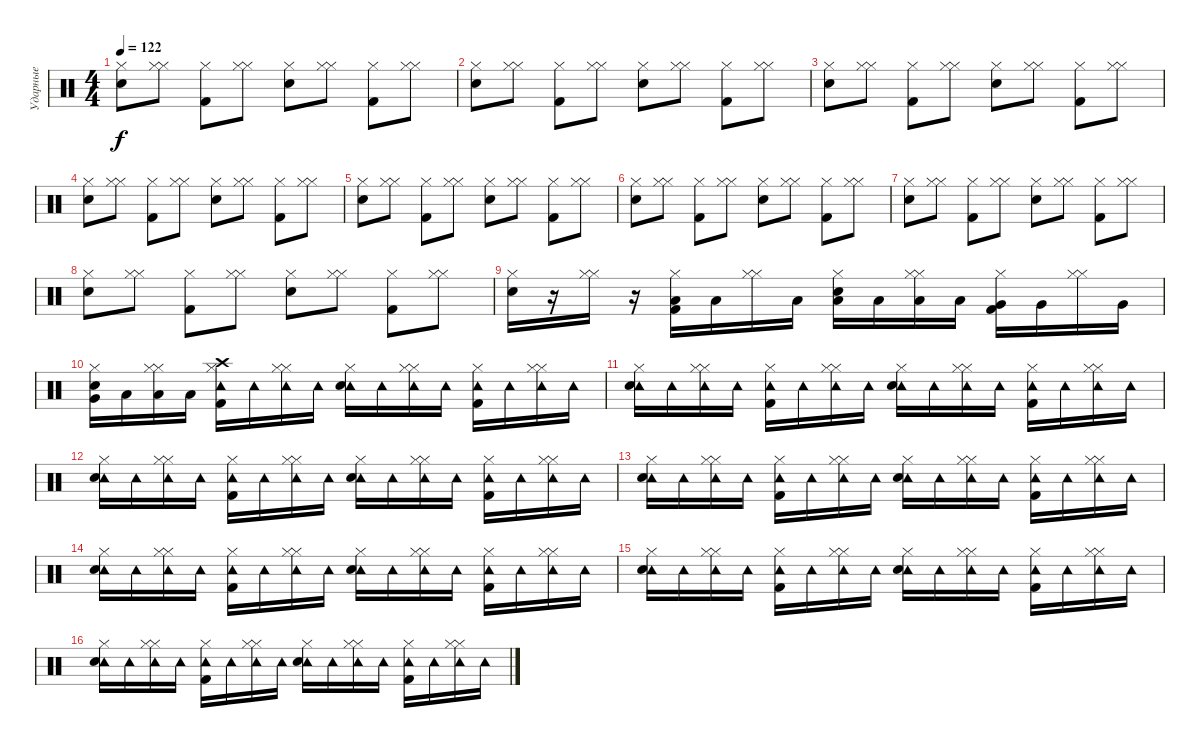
\track ("Ударные" "Ударные") {instrument percussion}
\staff {score}
\articulation defaults
\ts (4 4)
\tempo 122
\clef neutral
\ks c
("Hi-Hat (closed)" "Snare (hit) 2").8{dy f} ("Hi-Hat (closed)" "Hi-Hat (closed)").8 ("Hi-Hat (closed)" "Kick (hit) 2").8 ("Hi-Hat (closed)" "Hi-Hat (closed)").8 ("Hi-Hat (closed)" "Snare (hit) 2").8 ("Hi-Hat (closed)" "Hi-Hat (closed)").8 ("Hi-Hat (closed)" "Kick (hit) 2").8 ("Hi-Hat (closed)" "Hi-Hat (closed)").8 |
("Hi-Hat (closed)" "Snare (hit) 2").8 ("Hi-Hat (closed)" "Hi-Hat (closed)").8 ("Hi-Hat (closed)" "Kick (hit) 2").8 ("Hi-Hat (closed)" "Hi-Hat (closed)").8 ("Hi-Hat (closed)" "Snare (hit) 2").8 ("Hi-Hat (closed)" "Hi-Hat (closed)").8 ("Hi-Hat (closed)" "Kick (hit) 2").8 ("Hi-Hat (closed)" "Hi-Hat (closed)").8 |
("Hi-Hat (closed)" "Snare (hit) 2").8 ("Hi-Hat (closed)" "Hi-Hat (closed)").8 ("Hi-Hat (closed)" "Kick (hit) 2").8 ("Hi-Hat (closed)" "Hi-Hat (closed)").8 ("Hi-Hat (closed)" "Snare (hit) 2").8 ("Hi-Hat (closed)" "Hi-Hat (closed)").8 ("Hi-Hat (closed)" "Kick (hit) 2").8 ("Hi-Hat (closed)" "Hi-Hat (closed)").8 |
("Hi-Hat (closed)" "Snare (hit) 2").8 ("Hi-Hat (closed)" "Hi-Hat (closed)").8 ("Hi-Hat (closed)" "Kick (hit) 2").8 ("Hi-Hat (closed)" "Hi-Hat (closed)").8 ("Hi-Hat (closed)" "Snare (hit) 2").8 ("Hi-Hat (closed)" "Hi-Hat (closed)").8 ("Hi-Hat (closed)" "Kick (hit) 2").8 ("Hi-Hat (closed)" "Hi-Hat (closed)").8 |
("Hi-Hat (closed)" "Snare (hit) 2").8 ("Hi-Hat (closed)" "Hi-Hat (closed)").8 ("Hi-Hat (closed)" "Kick (hit) 2").8 ("Hi-Hat (closed)" "Hi-Hat (closed)").8 ("Hi-Hat (closed)" "Snare (hit) 2").8 ("Hi-Hat (closed)" "Hi-Hat (closed)").8 ("Hi-Hat (closed)" "Kick (hit) 2").8 ("Hi-Hat (closed)" "Hi-Hat (closed)").8 |
("Hi-Hat (closed)" "Snare (hit) 2").8 ("Hi-Hat (closed)" "Hi-Hat (closed)").8 ("Hi-Hat (closed)" "Kick (hit) 2").8 ("Hi-Hat (closed)" "Hi-Hat (closed)").8 ("Hi-Hat (closed)" "Snare (hit) 2").8 ("Hi-Hat (closed)" "Hi-Hat (closed)").8 ("Hi-Hat (closed)" "Kick (hit) 2").8 ("Hi-Hat (closed)" "Hi-Hat (closed)").8 |
("Hi-Hat (closed)" "Snare (hit) 2").8 ("Hi-Hat (closed)" "Hi-Hat (closed)").8 ("Hi-Hat (closed)" "Kick (hit) 2").8 ("Hi-Hat (closed)" "Hi-Hat (closed)").8 ("Hi-Hat (closed)" "Snare (hit) 2").8 ("Hi-Hat (closed)" "Hi-Hat (closed)").8 ("Hi-Hat (closed)" "Kick (hit) 2").8 ("Hi-Hat (closed)" "Hi-Hat (closed)").8 |
("Hi-Hat (closed)" "Snare (hit) 2").8 ("Hi-Hat (closed)" "Hi-Hat (closed)").8 ("Hi-Hat (closed)" "Kick (hit) 2").8 ("Hi-Hat (closed)" "Hi-Hat (closed)").8 ("Hi-Hat (closed)" "Snare (hit) 2").8 ("Hi-Hat (closed)" "Hi-Hat (closed)").8 ("Hi-Hat (closed)" "Kick (hit) 2").8 ("Hi-Hat (closed)" "Hi-Hat (closed)").8 |
("Hi-Hat (closed)" "Snare (hit) 2").16 r.16 ("Hi-Hat (closed)" "Hi-Hat (closed)").16 r.16 ("Low Tom (hit)" "Hi-Hat (closed)" "Kick (hit) 2").16 "Low Tom (hit)".16 ("Hi-Hat (closed)" "Hi-Hat (closed)").16 "Low Tom (hit)".16 ("Low Tom (hit)" "Hi-Hat (closed)" "Snare (hit) 2").16 "Low Tom (hit)".16 ("Low Tom (hit)" "Hi-Hat (closed)" "Hi-Hat (closed)").16 "Low Tom (hit)".16 ("Very Low Tom (hit)" "Hi-Hat (closed)" "Kick (hit) 2").16 "Very Low Tom (hit)".16 ("Hi-Hat (closed)" "Hi-Hat (closed)").16 "Very Low Tom (hit)".16 |
("Very Low Tom (hit)" "Hi-Hat (closed)" "Snare (hit) 2").16 "Low Floor Tom (hit)".16 ("Low Floor Tom (hit)" "Hi-Hat (closed)" "Hi-Hat (closed)").16 "Low Floor Tom (hit)".16 ("Crash high (hit)" "Tambourine (hit)" "Hi-Hat (closed)" "Kick (hit) 2").16 "Tambourine (hit)".16 ("Tambourine (hit)" "Hi-Hat (closed)" "Hi-Hat (closed)").16 "Tambourine (hit)".16 ("Tambourine (hit)" "Hi-Hat (closed)" "Snare (hit) 2").16 "Tambourine (hit)".16 ("Tambourine (hit)" "Hi-Hat (closed)" "Hi-Hat (closed)").16 "Tambourine (hit)".16 ("Tambourine (hit)" "Hi-Hat (closed)" "Kick (hit) 2").16 "Tambourine (hit)".16 ("Tambourine (hit)" "Hi-Hat (closed)" "Hi-Hat (closed)").16 "Tambourine (hit)".16 |
("Tambourine (hit)" "Hi-Hat (closed)" "Snare (hit) 2").16 "Tambourine (hit)".16 ("Tambourine (hit)" "Hi-Hat (closed)" "Hi-Hat (closed)").16 "Tambourine (hit)".16 ("Tambourine (hit)" "Hi-Hat (closed)" "Kick (hit) 2").16 "Tambourine (hit)".16 ("Tambourine (hit)" "Hi-Hat (closed)" "Hi-Hat (closed)").16 "Tambourine (hit)".16 ("Tambourine (hit)" "Hi-Hat (closed)" "Snare (hit) 2").16 "Tambourine (hit)".16 ("Tambourine (hit)" "Hi-Hat (closed)" "Hi-Hat (closed)").16 "Tambourine (hit)".16 ("Tambourine (hit)" "Hi-Hat (closed)" "Kick (hit) 2").16 "Tambourine (hit)".16 ("Tambourine (hit)" "Hi-Hat (closed)" "Hi-Hat (closed)").16 "Tambourine (hit)".16 |
("Tambourine (hit)" "Hi-Hat (closed)" "Snare (hit) 2").16 "Tambourine (hit)".16 ("Tambourine (hit)" "Hi-Hat (closed)" "Hi-Hat (closed)").16 "Tambourine (hit)".16 ("Tambourine (hit)" "Hi-Hat (closed)" "Kick (hit) 2").16 "Tambourine (hit)".16 ("Tambourine (hit)" "Hi-Hat (closed)" "Hi-Hat (closed)").16 "Tambourine (hit)".16 ("Tambourine (hit)" "Hi-Hat (closed)" "Snare (hit) 2").16 "Tambourine (hit)".16 ("Tambourine (hit)" "Hi-Hat (closed)" "Hi-Hat (closed)").16 "Tambourine (hit)".16 ("Tambourine (hit)" "Hi-Hat (closed)" "Kick (hit) 2").16 "Tambourine (hit)".16 ("Tambourine (hit)" "Hi-Hat (closed)" "Hi-Hat (closed)").16 "Tambourine (hit)".16 |
("Tambourine (hit)" "Hi-Hat (closed)" "Snare (hit) 2").16 "Tambourine (hit)".16 ("Tambourine (hit)" "Hi-Hat (closed)" "Hi-Hat (closed)").16 "Tambourine (hit)".16 ("Tambourine (hit)" "Hi-Hat (closed)" "Kick (hit) 2").16 "Tambourine (hit)".16 ("Tambourine (hit)" "Hi-Hat (closed)" "Hi-Hat (closed)").16 "Tambourine (hit)".16 ("Tambourine (hit)" "Hi-Hat (closed)" "Snare (hit) 2").16 "Tambourine (hit)".16 ("Tambourine (hit)" "Hi-Hat (closed)" "Hi-Hat (closed)").16 "Tambourine (hit)".16 ("Tambourine (hit)" "Hi-Hat (closed)" "Kick (hit) 2").16 "Tambourine (hit)".16 ("Tambourine (hit)" "Hi-Hat (closed)" "Hi-Hat (closed)").16 "Tambourine (hit)".16 |
("Tambourine (hit)" "Hi-Hat (closed)" "Snare (hit) 2").16 "Tambourine (hit)".16 ("Tambourine (hit)" "Hi-Hat (closed)" "Hi-Hat (closed)").16 "Tambourine (hit)".16 ("Tambourine (hit)" "Hi-Hat (closed)" "Kick (hit) 2").16 "Tambourine (hit)".16 ("Tambourine (hit)" "Hi-Hat (closed)" "Hi-Hat (closed)").16 "Tambourine (hit)".16 ("Tambourine (hit)" "Hi-Hat (closed)" "Snare (hit) 2").16 "Tambourine (hit)".16 ("Tambourine (hit)" "Hi-Hat (closed)" "Hi-Hat (closed)").16 "Tambourine (hit)".16 ("Tambourine (hit)" "Hi-Hat (closed)" "Kick (hit) 2").16 "Tambourine (hit)".16 ("Tambourine (hit)" "Hi-Hat (closed)" "Hi-Hat (closed)").16 "Tambourine (hit)".16 |
("Tambourine (hit)" "Hi-Hat (closed)" "Snare (hit) 2").16 "Tambourine (hit)".16 ("Tambourine (hit)" "Hi-Hat (closed)" "Hi-Hat (closed)").16 "Tambourine (hit)".16 ("Tambourine (hit)" "Hi-Hat (closed)" "Kick (hit) 2").16 "Tambourine (hit)".16 ("Tambourine (hit)" "Hi-Hat (closed)" "Hi-Hat (closed)").16 "Tambourine (hit)".16 ("Tambourine (hit)" "Hi-Hat (closed)" "Snare (hit) 2").16 "Tambourine (hit)".16 ("Tambourine (hit)" "Hi-Hat (closed)" "Hi-Hat (closed)").16 "Tambourine (hit)".16 ("Tambourine (hit)" "Hi-Hat (closed)" "Kick (hit) 2").16 "Tambourine (hit)".16 ("Tambourine (hit)" "Hi-Hat (closed)" "Hi-Hat (closed)").16 "Tambourine (hit)".16 |
("Tambourine (hit)" "Hi-Hat (closed)" "Snare (hit) 2").16 "Tambourine (hit)".16 ("Tambourine (hit)" "Hi-Hat (closed)" "Hi-Hat (closed)").16 "Tambourine (hit)".16 ("Tambourine (hit)" "Hi-Hat (closed)" "Kick (hit) 2").16 "Tambourine (hit)".16 ("Tambourine (hit)" "Hi-Hat (closed)" "Hi-Hat (closed)").16 "Tambourine (hit)".16 ("Tambourine (hit)" "Hi-Hat (closed)" "Snare (hit) 2").16 "Tambourine (hit)".16 ("Tambourine (hit)" "Hi-Hat (closed)" "Hi-Hat (closed)").16 "Tambourine (hit)".16 ("Tambourine (hit)" "Hi-Hat (closed)" "Kick (hit) 2").16 "Tambourine (hit)".16 ("Tambourine (hit)" "Hi-Hat (closed)" "Hi-Hat (closed)").16 "Tambourine (hit)".16
